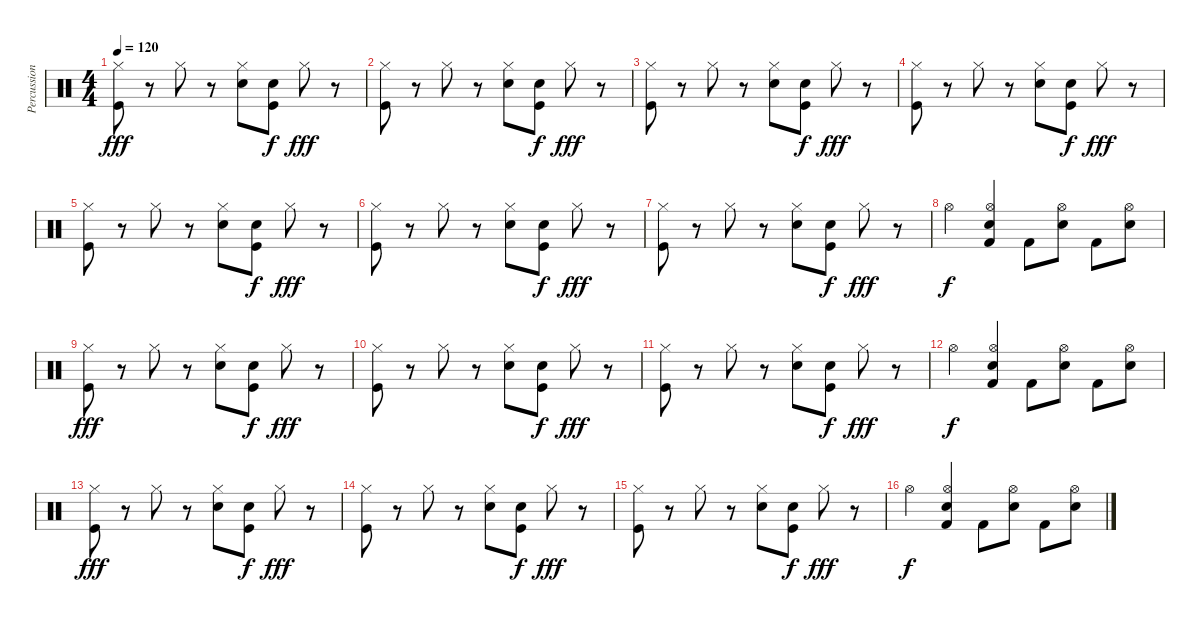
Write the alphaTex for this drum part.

\track ("Percussion(Satish)" "Percussion") {instrument percussion}
\staff {score}
\articulation defaults
\ts (4 4)
\tempo 120
\clef neutral
\ks c
("Hi-Hat (closed)" "Kick (hit)").8{dy fff} r.8 "Hi-Hat (closed)".8 r.8 ("Hi-Hat (closed)" "Snare (hit) 2").8 ("Snare (hit) 2" "Kick (hit)").8{dy f} "Hi-Hat (closed)".8{dy fff} r.8 |
("Hi-Hat (closed)" "Kick (hit)").8 r.8 "Hi-Hat (closed)".8 r.8 ("Hi-Hat (closed)" "Snare (hit) 2").8 ("Snare (hit) 2" "Kick (hit)").8{dy f} "Hi-Hat (closed)".8{dy fff} r.8 |
("Hi-Hat (closed)" "Kick (hit)").8 r.8 "Hi-Hat (closed)".8 r.8 ("Hi-Hat (closed)" "Snare (hit) 2").8 ("Snare (hit) 2" "Kick (hit)").8{dy f} "Hi-Hat (closed)".8{dy fff} r.8 |
("Hi-Hat (closed)" "Kick (hit)").8 r.8 "Hi-Hat (closed)".8 r.8 ("Hi-Hat (closed)" "Snare (hit) 2").8 ("Snare (hit) 2" "Kick (hit)").8{dy f} "Hi-Hat (closed)".8{dy fff} r.8 |
("Hi-Hat (closed)" "Kick (hit)").8 r.8 "Hi-Hat (closed)".8 r.8 ("Hi-Hat (closed)" "Snare (hit) 2").8 ("Snare (hit) 2" "Kick (hit)").8{dy f} "Hi-Hat (closed)".8{dy fff} r.8 |
("Hi-Hat (closed)" "Kick (hit)").8 r.8 "Hi-Hat (closed)".8 r.8 ("Hi-Hat (closed)" "Snare (hit) 2").8 ("Snare (hit) 2" "Kick (hit)").8{dy f} "Hi-Hat (closed)".8{dy fff} r.8 |
("Hi-Hat (closed)" "Kick (hit)").8 r.8 "Hi-Hat (closed)".8 r.8 ("Hi-Hat (closed)" "Snare (hit) 2").8 ("Snare (hit) 2" "Kick (hit)").8{dy f} "Hi-Hat (closed)".8{dy fff} r.8 |
"Hi-Hat (open)".4{dy f} ("Kick (hit) 2" "Snare (hit) 2" "Hi-Hat (open)").4 "Kick (hit) 2".8 ("Hi-Hat (open)" "Electric Snare (hit)").8 "Kick (hit) 2".8 ("Electric Snare (hit)" "Hi-Hat (open)").8 |
("Hi-Hat (closed)" "Kick (hit)").8{dy fff} r.8 "Hi-Hat (closed)".8 r.8 ("Hi-Hat (closed)" "Snare (hit) 2").8 ("Snare (hit) 2" "Kick (hit)").8{dy f} "Hi-Hat (closed)".8{dy fff} r.8 |
("Hi-Hat (closed)" "Kick (hit)").8 r.8 "Hi-Hat (closed)".8 r.8 ("Hi-Hat (closed)" "Snare (hit) 2").8 ("Snare (hit) 2" "Kick (hit)").8{dy f} "Hi-Hat (closed)".8{dy fff} r.8 |
("Hi-Hat (closed)" "Kick (hit)").8 r.8 "Hi-Hat (closed)".8 r.8 ("Hi-Hat (closed)" "Snare (hit) 2").8 ("Snare (hit) 2" "Kick (hit)").8{dy f} "Hi-Hat (closed)".8{dy fff} r.8 |
"Hi-Hat (open)".4{dy f} ("Kick (hit) 2" "Snare (hit) 2" "Hi-Hat (open)").4 "Kick (hit) 2".8 ("Hi-Hat (open)" "Electric Snare (hit)").8 "Kick (hit) 2".8 ("Electric Snare (hit)" "Hi-Hat (open)").8 |
("Hi-Hat (closed)" "Kick (hit)").8{dy fff} r.8 "Hi-Hat (closed)".8 r.8 ("Hi-Hat (closed)" "Snare (hit) 2").8 ("Snare (hit) 2" "Kick (hit)").8{dy f} "Hi-Hat (closed)".8{dy fff} r.8 |
("Hi-Hat (closed)" "Kick (hit)").8 r.8 "Hi-Hat (closed)".8 r.8 ("Hi-Hat (closed)" "Snare (hit) 2").8 ("Snare (hit) 2" "Kick (hit)").8{dy f} "Hi-Hat (closed)".8{dy fff} r.8 |
("Hi-Hat (closed)" "Kick (hit)").8 r.8 "Hi-Hat (closed)".8 r.8 ("Hi-Hat (closed)" "Snare (hit) 2").8 ("Snare (hit) 2" "Kick (hit)").8{dy f} "Hi-Hat (closed)".8{dy fff} r.8 |
"Hi-Hat (open)".4{dy f} ("Kick (hit) 2" "Snare (hit) 2" "Hi-Hat (open)").4 "Kick (hit) 2".8 ("Hi-Hat (open)" "Electric Snare (hit)").8 "Kick (hit) 2".8 ("Electric Snare (hit)" "Hi-Hat (open)").8
